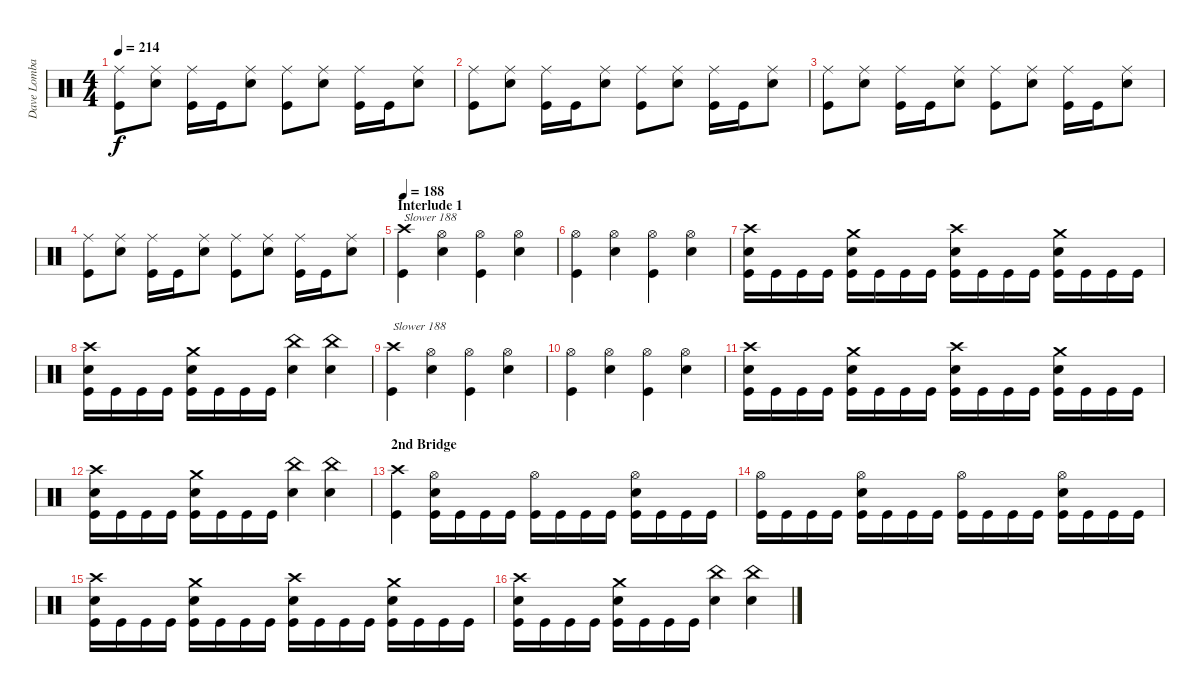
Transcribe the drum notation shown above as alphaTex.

\track ("Dave Lombardo" "Dave Lomba") {instrument percussion}
\staff {score}
\articulation defaults
\ts (4 4)
\tempo 214
\clef neutral
\ks c
("Ride (middle)" "Kick (hit)").8{dy f} ("Ride (middle)" "Snare (hit) 2").8 ("Ride (middle)" "Kick (hit)").16 "Kick (hit)".16 ("Ride (middle)" "Snare (hit) 2").8 ("Ride (middle)" "Kick (hit)").8 ("Ride (middle)" "Snare (hit) 2").8 ("Ride (middle)" "Kick (hit)").16 "Kick (hit)".16 ("Ride (middle)" "Snare (hit) 2").8 |
("Ride (middle)" "Kick (hit)").8 ("Ride (middle)" "Snare (hit) 2").8 ("Ride (middle)" "Kick (hit)").16 "Kick (hit)".16 ("Ride (middle)" "Snare (hit) 2").8 ("Ride (middle)" "Kick (hit)").8 ("Ride (middle)" "Snare (hit) 2").8 ("Ride (middle)" "Kick (hit)").16 "Kick (hit)".16 ("Ride (middle)" "Snare (hit) 2").8 |
("Ride (middle)" "Kick (hit)").8 ("Ride (middle)" "Snare (hit) 2").8 ("Ride (middle)" "Kick (hit)").16 "Kick (hit)".16 ("Ride (middle)" "Snare (hit) 2").8 ("Ride (middle)" "Kick (hit)").8 ("Ride (middle)" "Snare (hit) 2").8 ("Ride (middle)" "Kick (hit)").16 "Kick (hit)".16 ("Ride (middle)" "Snare (hit) 2").8 |
("Ride (middle)" "Kick (hit)").8 ("Ride (middle)" "Snare (hit) 2").8 ("Ride (middle)" "Kick (hit)").16 "Kick (hit)".16 ("Ride (middle)" "Snare (hit) 2").8 ("Ride (middle)" "Kick (hit)").8 ("Ride (middle)" "Snare (hit) 2").8 ("Ride (middle)" "Kick (hit)").16 "Kick (hit)".16 ("Ride (middle)" "Snare (hit) 2").8 |
\section ("" "Interlude 1")
\tempo 188
("Crash high (hit)" "Kick (hit)").4{txt "Slower 188"} ("Hi-Hat (open)" "Snare (hit) 2").4 ("Hi-Hat (open)" "Kick (hit)").4 ("Hi-Hat (open)" "Snare (hit) 2").4 |
("Hi-Hat (open)" "Kick (hit)").4 ("Hi-Hat (open)" "Snare (hit) 2").4 ("Hi-Hat (open)" "Kick (hit)").4 ("Hi-Hat (open)" "Snare (hit) 2").4 |
("Crash high (hit)" "Snare (hit) 2" "Kick (hit)").16 "Kick (hit)".16 "Kick (hit)".16 "Kick (hit)".16 ("Crash medium (hit)" "Snare (hit) 2" "Kick (hit)").16 "Kick (hit)".16 "Kick (hit)".16 "Kick (hit)".16 ("Crash high (hit)" "Snare (hit) 2" "Kick (hit)").16 "Kick (hit)".16 "Kick (hit)".16 "Kick (hit)".16 ("Crash medium (hit)" "Snare (hit) 2" "Kick (hit)").16 "Kick (hit)".16 "Kick (hit)".16 "Kick (hit)".16 |
("Crash high (hit)" "Snare (hit) 2" "Kick (hit)").16 "Kick (hit)".16 "Kick (hit)".16 "Kick (hit)".16 ("Crash medium (hit)" "Snare (hit) 2" "Kick (hit)").16 "Kick (hit)".16 "Kick (hit)".16 "Kick (hit)".16 ("China (hit)" "Snare (hit) 2").4 ("China (hit)" "Snare (hit) 2").4 |
("Crash high (hit)" "Kick (hit)").4{txt "Slower 188"} ("Hi-Hat (open)" "Snare (hit) 2").4 ("Hi-Hat (open)" "Kick (hit)").4 ("Hi-Hat (open)" "Snare (hit) 2").4 |
("Hi-Hat (open)" "Kick (hit)").4 ("Hi-Hat (open)" "Snare (hit) 2").4 ("Hi-Hat (open)" "Kick (hit)").4 ("Hi-Hat (open)" "Snare (hit) 2").4 |
("Crash high (hit)" "Snare (hit) 2" "Kick (hit)").16 "Kick (hit)".16 "Kick (hit)".16 "Kick (hit)".16 ("Crash medium (hit)" "Snare (hit) 2" "Kick (hit)").16 "Kick (hit)".16 "Kick (hit)".16 "Kick (hit)".16 ("Crash high (hit)" "Snare (hit) 2" "Kick (hit)").16 "Kick (hit)".16 "Kick (hit)".16 "Kick (hit)".16 ("Crash medium (hit)" "Snare (hit) 2" "Kick (hit)").16 "Kick (hit)".16 "Kick (hit)".16 "Kick (hit)".16 |
("Crash high (hit)" "Snare (hit) 2" "Kick (hit)").16 "Kick (hit)".16 "Kick (hit)".16 "Kick (hit)".16 ("Crash medium (hit)" "Snare (hit) 2" "Kick (hit)").16 "Kick (hit)".16 "Kick (hit)".16 "Kick (hit)".16 ("China (hit)" "Snare (hit) 2").4 ("China (hit)" "Snare (hit) 2").4 |
\section ("" "2nd Bridge")
("Crash high (hit)" "Kick (hit)").4 ("Hi-Hat (open)" "Snare (hit) 2" "Kick (hit)").16 "Kick (hit)".16 "Kick (hit)".16 "Kick (hit)".16 ("Hi-Hat (open)" "Kick (hit)").16 "Kick (hit)".16 "Kick (hit)".16 "Kick (hit)".16 ("Hi-Hat (open)" "Snare (hit) 2" "Kick (hit)").16 "Kick (hit)".16 "Kick (hit)".16 "Kick (hit)".16 |
("Hi-Hat (open)" "Kick (hit)").16 "Kick (hit)".16 "Kick (hit)".16 "Kick (hit)".16 ("Hi-Hat (open)" "Snare (hit) 2" "Kick (hit)").16 "Kick (hit)".16 "Kick (hit)".16 "Kick (hit)".16 ("Hi-Hat (open)" "Kick (hit)").16 "Kick (hit)".16 "Kick (hit)".16 "Kick (hit)".16 ("Hi-Hat (open)" "Snare (hit) 2" "Kick (hit)").16 "Kick (hit)".16 "Kick (hit)".16 "Kick (hit)".16 |
("Crash high (hit)" "Snare (hit) 2" "Kick (hit)").16 "Kick (hit)".16 "Kick (hit)".16 "Kick (hit)".16 ("Crash medium (hit)" "Snare (hit) 2" "Kick (hit)").16 "Kick (hit)".16 "Kick (hit)".16 "Kick (hit)".16 ("Crash high (hit)" "Snare (hit) 2" "Kick (hit)").16 "Kick (hit)".16 "Kick (hit)".16 "Kick (hit)".16 ("Crash medium (hit)" "Snare (hit) 2" "Kick (hit)").16 "Kick (hit)".16 "Kick (hit)".16 "Kick (hit)".16 |
("Crash high (hit)" "Snare (hit) 2" "Kick (hit)").16 "Kick (hit)".16 "Kick (hit)".16 "Kick (hit)".16 ("Crash medium (hit)" "Snare (hit) 2" "Kick (hit)").16 "Kick (hit)".16 "Kick (hit)".16 "Kick (hit)".16 ("China (hit)" "Snare (hit) 2").4 ("China (hit)" "Snare (hit) 2").4
